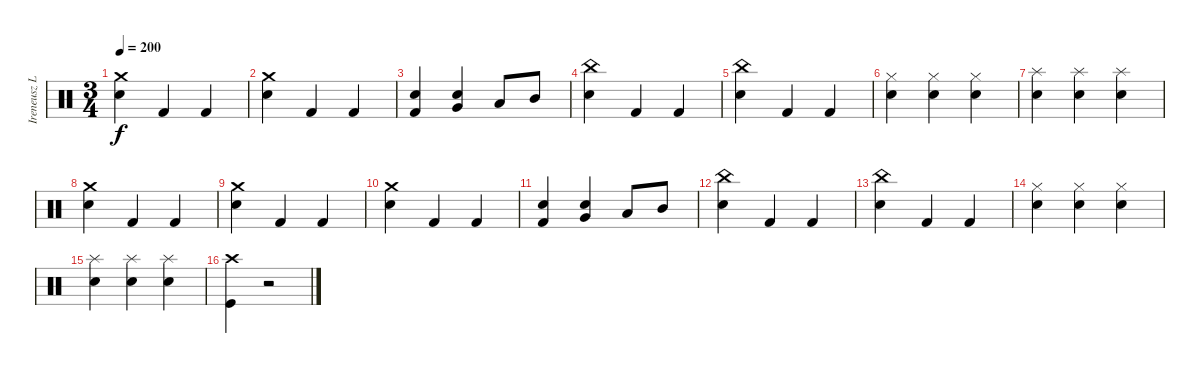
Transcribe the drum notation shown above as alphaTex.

\track ("Ireneusz Loth -Drums" "Ireneusz L") {instrument percussion}
\staff {score}
\articulation defaults
\ts (3 4)
\tempo 200
\clef neutral
\ks c
("Snare (hit) 2" "Crash medium (hit)").4{dy f} "Kick (hit) 2".4 "Kick (hit) 2".4 |
("Snare (hit) 2" "Crash medium (hit)").4 "Kick (hit) 2".4 "Kick (hit) 2".4 |
("Snare (hit) 2" "Kick (hit) 2").4 ("Very Low Tom (hit)" "Snare (hit) 2").4 "Low Tom (hit)".8 "Mid Tom (hit)".8 |
("China (hit)" "Snare (hit) 2").4 "Kick (hit) 2".4 "Kick (hit) 2".4 |
("China (hit)" "Snare (hit) 2").4 "Kick (hit) 2".4 "Kick (hit) 2".4 |
("Hi-Hat (closed)" "Snare (hit) 2").4 ("Hi-Hat (closed)" "Snare (hit) 2").4 ("Hi-Hat (closed)" "Snare (hit) 2").4 |
("Splash (hit)" "Snare (hit) 2").4 ("Splash (hit)" "Snare (hit) 2").4 ("Splash (hit)" "Snare (hit) 2").4 |
("Snare (hit) 2" "Crash medium (hit)").4 "Kick (hit) 2".4 "Kick (hit) 2".4 |
("Snare (hit) 2" "Crash medium (hit)").4 "Kick (hit) 2".4 "Kick (hit) 2".4 |
("Snare (hit) 2" "Crash medium (hit)").4 "Kick (hit) 2".4 "Kick (hit) 2".4 |
("Snare (hit) 2" "Kick (hit) 2").4 ("Very Low Tom (hit)" "Snare (hit) 2").4 "Low Tom (hit)".8 "Mid Tom (hit)".8 |
("China (hit)" "Snare (hit) 2").4 "Kick (hit) 2".4 "Kick (hit) 2".4 |
("China (hit)" "Snare (hit) 2").4 "Kick (hit) 2".4 "Kick (hit) 2".4 |
("Hi-Hat (closed)" "Snare (hit) 2").4 ("Hi-Hat (closed)" "Snare (hit) 2").4 ("Hi-Hat (closed)" "Snare (hit) 2").4 |
("Splash (hit)" "Snare (hit) 2").4 ("Splash (hit)" "Snare (hit) 2").4 ("Splash (hit)" "Snare (hit) 2").4 |
("Kick (hit)" "Crash high (hit)").4 r.2
